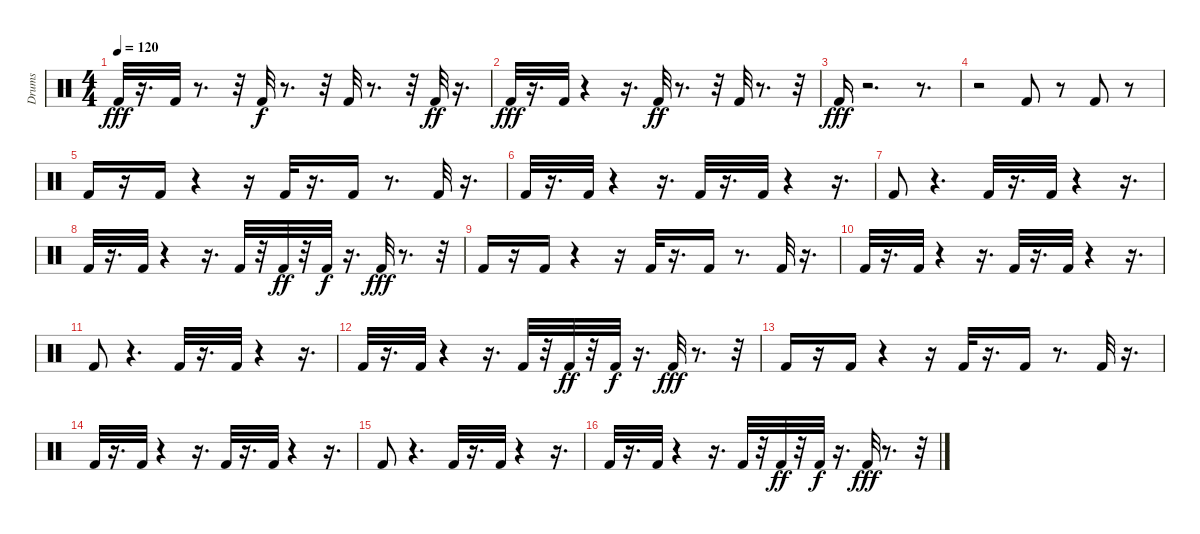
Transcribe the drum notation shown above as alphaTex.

\track ("Drums" "Drums") {instrument percussion}
\staff {score}
\articulation defaults
\ts (4 4)
\tempo 120
\clef neutral
\ks c "Kick (hit) 2".32{dy fff}
r.16{d} "Kick (hit) 2".32 r.8{d} r.32 "Kick (hit) 2".32{dy f} r.8{d} r.32 "Kick (hit) 2".32 r.8{d} r.32 "Kick (hit) 2".32{dy ff} r.16{d} |
"Kick (hit) 2".32{dy fff} r.16{d} "Kick (hit) 2".32 r.4 r.16{d} "Kick (hit) 2".32{dy ff} r.8{d} r.32 "Kick (hit) 2".32 r.8{d} r.32 |
"Kick (hit) 2".16{dy fff} r.2{d} r.8{d} |
r.2 "Kick (hit) 2".8 r.8 "Kick (hit) 2".8 r.8 |
"Kick (hit) 2".16 r.16 "Kick (hit) 2".16 r.4 r.16 "Kick (hit) 2".32 r.16{d} "Kick (hit) 2".16 r.8{d} "Kick (hit) 2".32 r.16{d} |
"Kick (hit) 2".32 r.16{d} "Kick (hit) 2".32 r.4 r.16{d} "Kick (hit) 2".32 r.16{d} "Kick (hit) 2".32 r.4 r.16{d} |
"Kick (hit) 2".8 r.4{d} "Kick (hit) 2".32 r.16{d} "Kick (hit) 2".32 r.4 r.16{d} |
"Kick (hit) 2".32 r.16{d} "Kick (hit) 2".32 r.4 r.16{d} "Kick (hit) 2".32 r.32 "Kick (hit) 2".32{dy ff} r.32 "Kick (hit) 2".32{dy f} r.16{d} "Kick (hit) 2".32{dy fff} r.8{d} r.32 |
"Kick (hit) 2".16 r.16 "Kick (hit) 2".16 r.4 r.16 "Kick (hit) 2".32 r.16{d} "Kick (hit) 2".16 r.8{d} "Kick (hit) 2".32 r.16{d} |
"Kick (hit) 2".32 r.16{d} "Kick (hit) 2".32 r.4 r.16{d} "Kick (hit) 2".32 r.16{d} "Kick (hit) 2".32 r.4 r.16{d} |
"Kick (hit) 2".8 r.4{d} "Kick (hit) 2".32 r.16{d} "Kick (hit) 2".32 r.4 r.16{d} |
"Kick (hit) 2".32 r.16{d} "Kick (hit) 2".32 r.4 r.16{d} "Kick (hit) 2".32 r.32 "Kick (hit) 2".32{dy ff} r.32 "Kick (hit) 2".32{dy f} r.16{d} "Kick (hit) 2".32{dy fff} r.8{d} r.32 |
"Kick (hit) 2".16 r.16 "Kick (hit) 2".16 r.4 r.16 "Kick (hit) 2".32 r.16{d} "Kick (hit) 2".16 r.8{d} "Kick (hit) 2".32 r.16{d} |
"Kick (hit) 2".32 r.16{d} "Kick (hit) 2".32 r.4 r.16{d} "Kick (hit) 2".32 r.16{d} "Kick (hit) 2".32 r.4 r.16{d} |
"Kick (hit) 2".8 r.4{d} "Kick (hit) 2".32 r.16{d} "Kick (hit) 2".32 r.4 r.16{d} |
"Kick (hit) 2".32 r.16{d} "Kick (hit) 2".32 r.4 r.16{d} "Kick (hit) 2".32 r.32 "Kick (hit) 2".32{dy ff} r.32 "Kick (hit) 2".32{dy f} r.16{d} "Kick (hit) 2".32{dy fff} r.8{d} r.32
